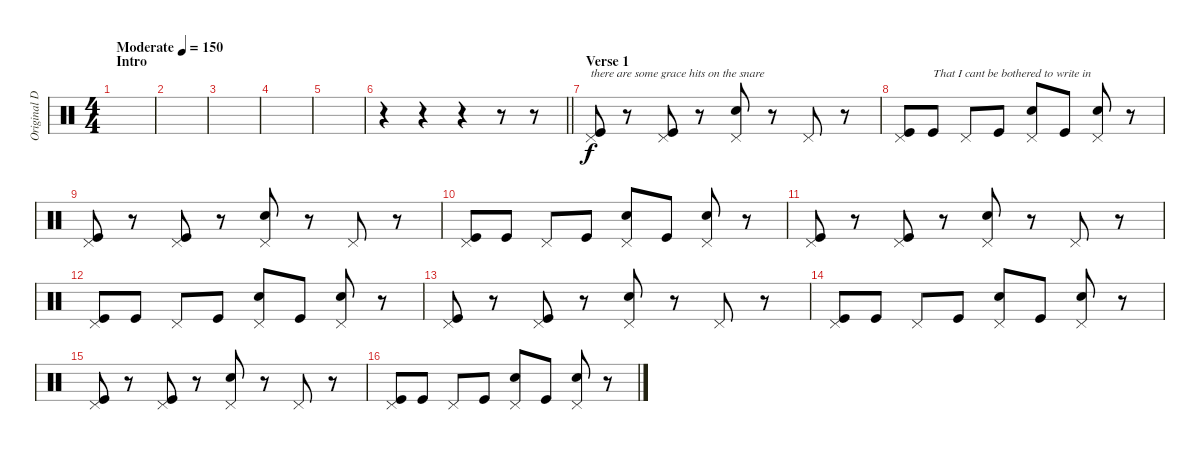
\track ("Original Drums" "Original D") {instrument percussion}
\staff {score}
\articulation defaults
\ts (4 4)
\section ("" "Intro")
\tempo (150 "Moderate")
\clef neutral
\ks c
|
|
|
|
|
\barLineRight lightlight
r.4 r.4 r.4 r.8 r.8 |
\section ("" "Verse 1")
("Pedal Hi-Hat (hit)" "Kick (hit)").8{txt "there are some grace hits on the snare"} r.8 ("Pedal Hi-Hat (hit)" "Kick (hit)").8 r.8 ("Pedal Hi-Hat (hit)" "Snare (hit) 2").8 r.8 "Pedal Hi-Hat (hit)".8 r.8 |
("Pedal Hi-Hat (hit)" "Kick (hit)").8 "Kick (hit)".8{txt "That I cant be bothered to write in"} "Pedal Hi-Hat (hit)".8 "Kick (hit)".8 ("Pedal Hi-Hat (hit)" "Snare (hit) 2").8 "Kick (hit)".8 ("Pedal Hi-Hat (hit)" "Snare (hit) 2").8 r.8 |
("Pedal Hi-Hat (hit)" "Kick (hit)").8 r.8 ("Pedal Hi-Hat (hit)" "Kick (hit)").8 r.8 ("Pedal Hi-Hat (hit)" "Snare (hit) 2").8 r.8 "Pedal Hi-Hat (hit)".8 r.8 |
("Pedal Hi-Hat (hit)" "Kick (hit)").8 "Kick (hit)".8 "Pedal Hi-Hat (hit)".8 "Kick (hit)".8 ("Pedal Hi-Hat (hit)" "Snare (hit) 2").8 "Kick (hit)".8 ("Pedal Hi-Hat (hit)" "Snare (hit) 2").8 r.8 |
("Pedal Hi-Hat (hit)" "Kick (hit)").8 r.8 ("Pedal Hi-Hat (hit)" "Kick (hit)").8 r.8 ("Pedal Hi-Hat (hit)" "Snare (hit) 2").8 r.8 "Pedal Hi-Hat (hit)".8 r.8 |
("Pedal Hi-Hat (hit)" "Kick (hit)").8 "Kick (hit)".8 "Pedal Hi-Hat (hit)".8 "Kick (hit)".8 ("Pedal Hi-Hat (hit)" "Snare (hit) 2").8 "Kick (hit)".8 ("Pedal Hi-Hat (hit)" "Snare (hit) 2").8 r.8 |
("Pedal Hi-Hat (hit)" "Kick (hit)").8 r.8 ("Pedal Hi-Hat (hit)" "Kick (hit)").8 r.8 ("Pedal Hi-Hat (hit)" "Snare (hit) 2").8 r.8 "Pedal Hi-Hat (hit)".8 r.8 |
("Pedal Hi-Hat (hit)" "Kick (hit)").8 "Kick (hit)".8 "Pedal Hi-Hat (hit)".8 "Kick (hit)".8 ("Pedal Hi-Hat (hit)" "Snare (hit) 2").8 "Kick (hit)".8 ("Pedal Hi-Hat (hit)" "Snare (hit) 2").8 r.8 |
("Pedal Hi-Hat (hit)" "Kick (hit)").8 r.8 ("Pedal Hi-Hat (hit)" "Kick (hit)").8 r.8 ("Pedal Hi-Hat (hit)" "Snare (hit) 2").8 r.8 "Pedal Hi-Hat (hit)".8 r.8 |
("Pedal Hi-Hat (hit)" "Kick (hit)").8 "Kick (hit)".8 "Pedal Hi-Hat (hit)".8 "Kick (hit)".8 ("Pedal Hi-Hat (hit)" "Snare (hit) 2").8 "Kick (hit)".8 ("Pedal Hi-Hat (hit)" "Snare (hit) 2").8 r.8
